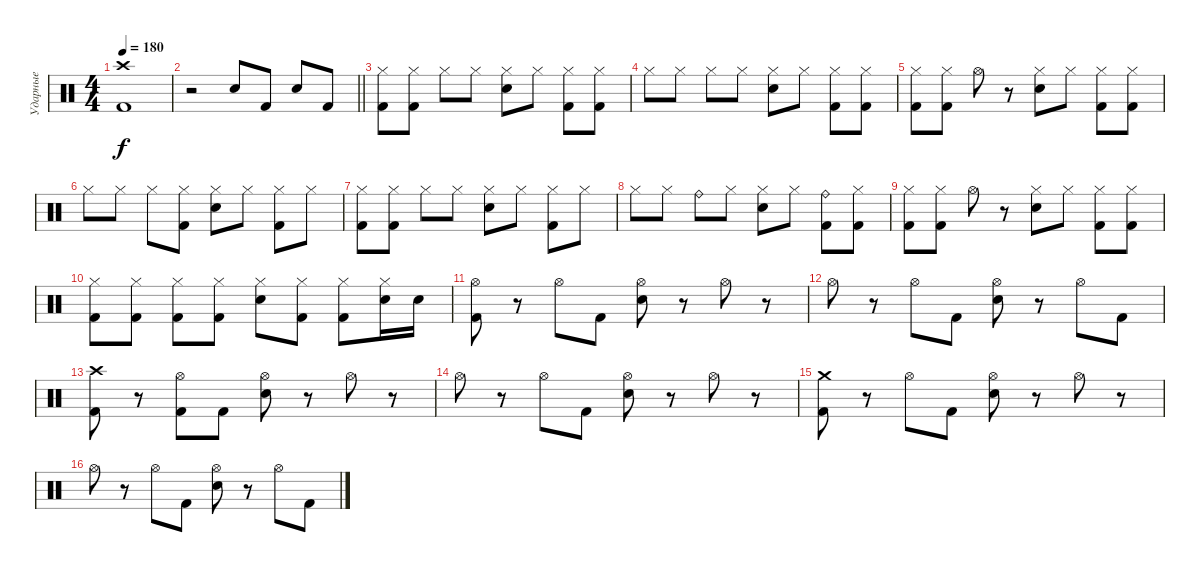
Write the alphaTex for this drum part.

\track ("Ударные" "Ударные") {instrument percussion}
\staff {score}
\articulation defaults
\ts (4 4)
\tempo 180
\clef neutral
\ks c
("Crash high (hit)" "Kick (hit) 2").1{dy f} |
\barLineRight lightlight
r.2 "Electric Snare (hit)".8 "Kick (hit) 2".8 "Electric Snare (hit)".8 "Kick (hit) 2".8 |
\section ("" "")
("Hi-Hat (closed)" "Kick (hit) 2").8 ("Hi-Hat (closed)" "Kick (hit) 2").8 "Hi-Hat (closed)".8 "Hi-Hat (closed)".8 ("Hi-Hat (closed)" "Electric Snare (hit)").8 "Hi-Hat (closed)".8 ("Hi-Hat (closed)" "Kick (hit) 2").8 ("Hi-Hat (closed)" "Kick (hit) 2").8 |
"Hi-Hat (closed)".8 "Hi-Hat (closed)".8 "Hi-Hat (closed)".8 "Hi-Hat (closed)".8 ("Hi-Hat (closed)" "Electric Snare (hit)").8 "Hi-Hat (closed)".8 ("Hi-Hat (closed)" "Kick (hit) 2").8 ("Hi-Hat (closed)" "Kick (hit) 2").8 |
("Hi-Hat (closed)" "Kick (hit) 2").8 ("Hi-Hat (closed)" "Kick (hit) 2").8 "Hi-Hat (open)".8 r.8 ("Hi-Hat (closed)" "Electric Snare (hit)").8 "Hi-Hat (closed)".8 ("Hi-Hat (closed)" "Kick (hit) 2").8 ("Hi-Hat (closed)" "Kick (hit) 2").8 |
"Hi-Hat (closed)".8 "Hi-Hat (closed)".8 "Hi-Hat (closed)".8 ("Hi-Hat (closed)" "Kick (hit) 2").8 ("Hi-Hat (closed)" "Electric Snare (hit)").8 "Hi-Hat (closed)".8 ("Hi-Hat (closed)" "Kick (hit) 2").8 "Hi-Hat (closed)".8 |
("Hi-Hat (closed)" "Kick (hit) 2").8 ("Hi-Hat (closed)" "Kick (hit) 2").8 "Hi-Hat (closed)".8 "Hi-Hat (closed)".8 ("Hi-Hat (closed)" "Electric Snare (hit)").8 "Hi-Hat (closed)".8 ("Hi-Hat (closed)" "Kick (hit) 2").8 "Hi-Hat (closed)".8 |
"Hi-Hat (closed)".8 "Hi-Hat (closed)".8 "Ride (bell)".8 "Hi-Hat (closed)".8 ("Hi-Hat (closed)" "Electric Snare (hit)").8 "Hi-Hat (closed)".8 ("Ride (bell)" "Kick (hit) 2").8 ("Hi-Hat (closed)" "Kick (hit) 2").8 |
("Hi-Hat (closed)" "Kick (hit) 2").8 ("Hi-Hat (closed)" "Kick (hit) 2").8 "Hi-Hat (open)".8 r.8 ("Hi-Hat (closed)" "Electric Snare (hit)").8 "Hi-Hat (closed)".8 ("Hi-Hat (closed)" "Kick (hit) 2").8 ("Hi-Hat (closed)" "Kick (hit) 2").8 |
("Hi-Hat (closed)" "Kick (hit) 2").8 ("Hi-Hat (closed)" "Kick (hit) 2").8 ("Hi-Hat (closed)" "Kick (hit) 2").8 ("Hi-Hat (closed)" "Kick (hit) 2").8 ("Hi-Hat (closed)" "Electric Snare (hit)").8 ("Hi-Hat (closed)" "Kick (hit) 2").8 ("Hi-Hat (closed)" "Kick (hit) 2").8 ("Hi-Hat (closed)" "Electric Snare (hit)").16 "Electric Snare (hit)".16 |
("Hi-Hat (open)" "Kick (hit) 2").8 r.8 "Hi-Hat (open)".8 "Kick (hit) 2".8 ("Hi-Hat (open)" "Electric Snare (hit)").8 r.8 "Hi-Hat (open)".8 r.8 |
"Hi-Hat (open)".8 r.8 "Hi-Hat (open)".8 "Kick (hit) 2".8 ("Hi-Hat (open)" "Electric Snare (hit)").8 r.8 "Hi-Hat (open)".8 "Kick (hit) 2".8 |
("Crash high (hit)" "Kick (hit) 2").8 r.8 ("Hi-Hat (open)" "Kick (hit) 2").8 "Kick (hit) 2".8 ("Hi-Hat (open)" "Electric Snare (hit)").8 r.8 "Hi-Hat (open)".8 r.8 |
"Hi-Hat (open)".8 r.8 "Hi-Hat (open)".8 "Kick (hit) 2".8 ("Hi-Hat (open)" "Electric Snare (hit)").8 r.8 "Hi-Hat (open)".8 r.8 |
("Crash medium (hit)" "Kick (hit) 2").8 r.8 "Hi-Hat (open)".8 "Kick (hit) 2".8 ("Hi-Hat (open)" "Electric Snare (hit)").8 r.8 "Hi-Hat (open)".8 r.8 |
"Hi-Hat (open)".8 r.8 "Hi-Hat (open)".8 "Kick (hit) 2".8 ("Hi-Hat (open)" "Electric Snare (hit)").8 r.8 "Hi-Hat (open)".8 "Kick (hit) 2".8
